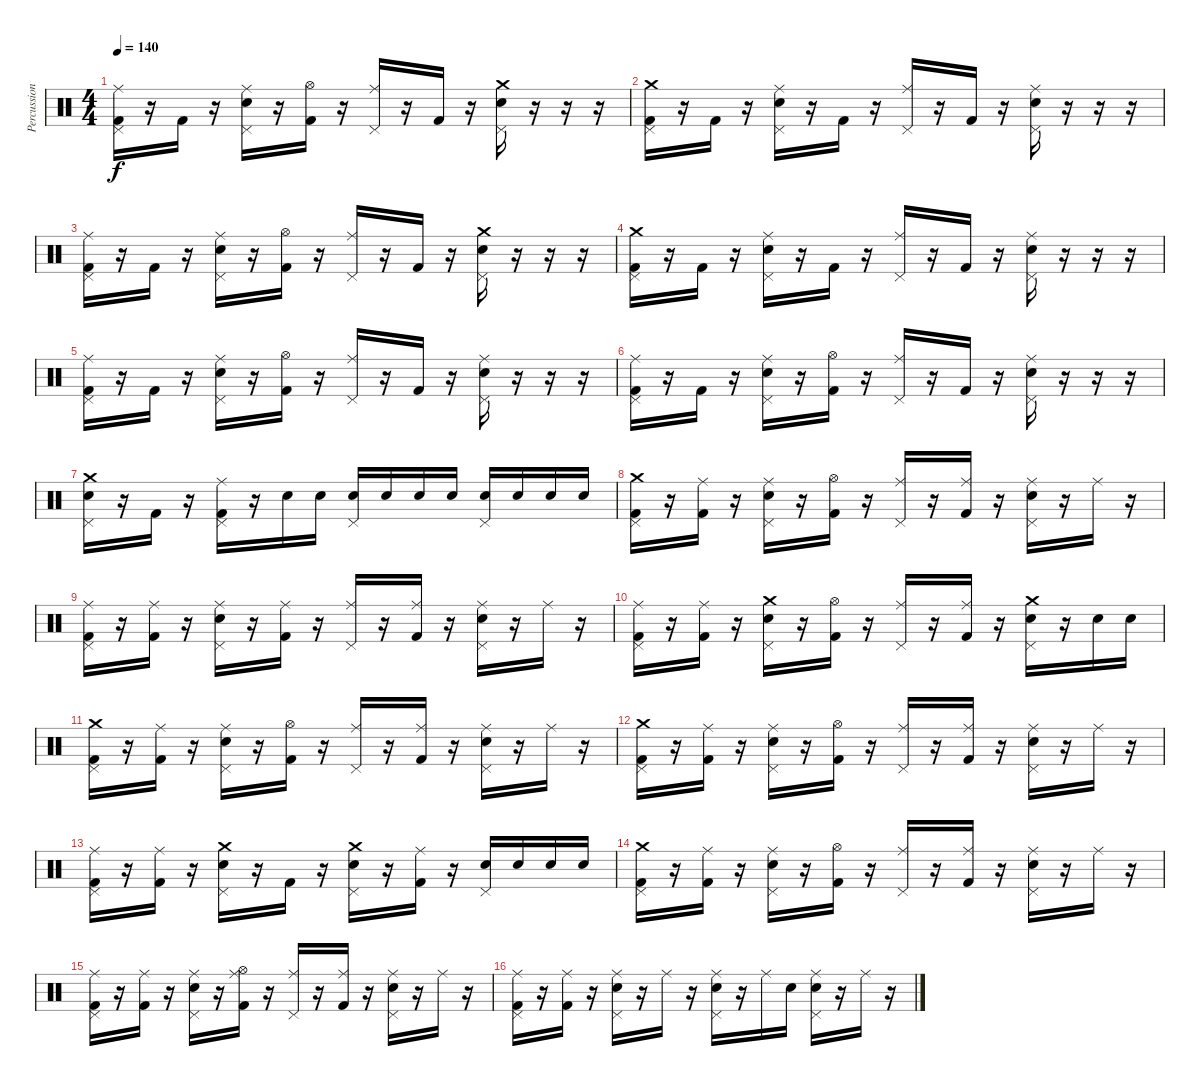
\track ("Percussion" "Percussion") {instrument percussion}
\staff {score}
\articulation defaults
\ts (4 4)
\tempo 140
\clef neutral
\ks c
("Ride (middle)" "Pedal Hi-Hat (hit)" "Kick (hit) 2").16{dy f} r.16 "Kick (hit) 2".16 r.16 ("Ride (middle)" "Pedal Hi-Hat (hit)" "Snare (hit) 2").16 r.16 ("Hi-Hat (open)" "Kick (hit) 2").16 r.16 ("Ride (middle)" "Pedal Hi-Hat (hit)").16 r.16 "Kick (hit) 2".16 r.16 ("Crash medium (hit)" "Pedal Hi-Hat (hit)" "Snare (hit) 2").16 r.16 r.16 r.16 |
("Crash medium (hit)" "Pedal Hi-Hat (hit)" "Kick (hit) 2").16 r.16 "Kick (hit) 2".16 r.16 ("Ride (middle)" "Pedal Hi-Hat (hit)" "Snare (hit) 2").16 r.16 "Kick (hit) 2".16 r.16 ("Ride (middle)" "Pedal Hi-Hat (hit)").16 r.16 "Kick (hit) 2".16 r.16 ("Ride (middle)" "Pedal Hi-Hat (hit)" "Snare (hit) 2").16 r.16 r.16 r.16 |
("Ride (middle)" "Pedal Hi-Hat (hit)" "Kick (hit) 2").16 r.16 "Kick (hit) 2".16 r.16 ("Ride (middle)" "Pedal Hi-Hat (hit)" "Snare (hit) 2").16 r.16 ("Hi-Hat (open)" "Kick (hit) 2").16 r.16 ("Ride (middle)" "Pedal Hi-Hat (hit)").16 r.16 "Kick (hit) 2".16 r.16 ("Crash medium (hit)" "Pedal Hi-Hat (hit)" "Snare (hit) 2").16 r.16 r.16 r.16 |
("Crash medium (hit)" "Pedal Hi-Hat (hit)" "Kick (hit) 2").16 r.16 "Kick (hit) 2".16 r.16 ("Ride (middle)" "Pedal Hi-Hat (hit)" "Snare (hit) 2").16 r.16 "Kick (hit) 2".16 r.16 ("Ride (middle)" "Pedal Hi-Hat (hit)").16 r.16 "Kick (hit) 2".16 r.16 ("Ride (middle)" "Pedal Hi-Hat (hit)" "Snare (hit) 2").16 r.16 r.16 r.16 |
("Ride (middle)" "Pedal Hi-Hat (hit)" "Kick (hit) 2").16 r.16 "Kick (hit) 2".16 r.16 ("Ride (middle)" "Pedal Hi-Hat (hit)" "Snare (hit) 2").16 r.16 ("Hi-Hat (open)" "Kick (hit) 2").16 r.16 ("Ride (middle)" "Pedal Hi-Hat (hit)").16 r.16 "Kick (hit) 2".16 r.16 ("Ride (middle)" "Pedal Hi-Hat (hit)" "Snare (hit) 2").16 r.16 r.16 r.16 |
("Ride (middle)" "Pedal Hi-Hat (hit)" "Kick (hit) 2").16 r.16 "Kick (hit) 2".16 r.16 ("Ride (middle)" "Pedal Hi-Hat (hit)" "Snare (hit) 2").16 r.16 ("Hi-Hat (open)" "Kick (hit) 2").16 r.16 ("Ride (middle)" "Pedal Hi-Hat (hit)").16 r.16 "Kick (hit) 2".16 r.16 ("Ride (middle)" "Pedal Hi-Hat (hit)" "Snare (hit) 2").16 r.16 r.16 r.16 |
("Crash medium (hit)" "Pedal Hi-Hat (hit)" "Snare (hit) 2").16 r.16 "Kick (hit) 2".16 r.16 ("Ride (middle)" "Pedal Hi-Hat (hit)" "Kick (hit) 2").16 r.16 "Snare (hit) 2".16 "Snare (hit) 2".16 ("Pedal Hi-Hat (hit)" "Snare (hit) 2").16 "Snare (hit) 2".16 "Snare (hit) 2".16 "Snare (hit) 2".16 ("Pedal Hi-Hat (hit)" "Snare (hit) 2").16 "Snare (hit) 2".16 "Snare (hit) 2".16 "Snare (hit) 2".16 |
("Crash medium (hit)" "Pedal Hi-Hat (hit)" "Kick (hit) 2").16 r.16 ("Ride (middle)" "Kick (hit) 2").16 r.16 ("Ride (middle)" "Pedal Hi-Hat (hit)" "Snare (hit) 2").16 r.16 ("Hi-Hat (open)" "Kick (hit) 2").16 r.16 ("Ride (middle)" "Pedal Hi-Hat (hit)").16 r.16 ("Ride (middle)" "Kick (hit) 2").16 r.16 ("Ride (middle)" "Pedal Hi-Hat (hit)" "Snare (hit) 2").16 r.16 "Ride (middle)".16 r.16 |
("Ride (middle)" "Pedal Hi-Hat (hit)" "Kick (hit) 2").16 r.16 ("Ride (middle)" "Kick (hit) 2").16 r.16 ("Ride (middle)" "Pedal Hi-Hat (hit)" "Snare (hit) 2").16 r.16 ("Ride (middle)" "Kick (hit) 2").16 r.16 ("Ride (middle)" "Pedal Hi-Hat (hit)").16 r.16 ("Ride (middle)" "Kick (hit) 2").16 r.16 ("Ride (middle)" "Pedal Hi-Hat (hit)" "Snare (hit) 2").16 r.16 "Ride (middle)".16 r.16 |
("Ride (middle)" "Pedal Hi-Hat (hit)" "Kick (hit) 2").16 r.16 ("Ride (middle)" "Kick (hit) 2").16 r.16 ("Crash medium (hit)" "Pedal Hi-Hat (hit)" "Snare (hit) 2").16 r.16 ("Hi-Hat (open)" "Kick (hit) 2").16 r.16 ("Ride (middle)" "Pedal Hi-Hat (hit)").16 r.16 ("Ride (middle)" "Kick (hit) 2").16 r.16 ("Crash medium (hit)" "Pedal Hi-Hat (hit)" "Snare (hit) 2").16 r.16 "Snare (hit) 2".16 "Snare (hit) 2".16 |
("Crash medium (hit)" "Pedal Hi-Hat (hit)" "Kick (hit) 2").16 r.16 ("Ride (middle)" "Kick (hit) 2").16 r.16 ("Ride (middle)" "Pedal Hi-Hat (hit)" "Snare (hit) 2").16 r.16 ("Hi-Hat (open)" "Kick (hit) 2").16 r.16 ("Ride (middle)" "Pedal Hi-Hat (hit)").16 r.16 ("Ride (middle)" "Kick (hit) 2").16 r.16 ("Ride (middle)" "Pedal Hi-Hat (hit)" "Snare (hit) 2").16 r.16 "Ride (middle)".16 r.16 |
("Crash medium (hit)" "Pedal Hi-Hat (hit)" "Kick (hit) 2").16 r.16 ("Ride (middle)" "Kick (hit) 2").16 r.16 ("Ride (middle)" "Pedal Hi-Hat (hit)" "Snare (hit) 2").16 r.16 ("Hi-Hat (open)" "Kick (hit) 2").16 r.16 ("Ride (middle)" "Pedal Hi-Hat (hit)").16 r.16 ("Ride (middle)" "Kick (hit) 2").16 r.16 ("Ride (middle)" "Pedal Hi-Hat (hit)" "Snare (hit) 2").16 r.16 "Ride (middle)".16 r.16 |
("Ride (middle)" "Pedal Hi-Hat (hit)" "Kick (hit) 2").16 r.16 ("Ride (middle)" "Kick (hit) 2").16 r.16 ("Crash medium (hit)" "Pedal Hi-Hat (hit)" "Snare (hit) 2").16 r.16 "Kick (hit) 2".16 r.16 ("Crash medium (hit)" "Pedal Hi-Hat (hit)" "Snare (hit) 2").16 r.16 ("Ride (middle)" "Kick (hit) 2").16 r.16 ("Pedal Hi-Hat (hit)" "Snare (hit) 2").16 "Snare (hit) 2".16 "Snare (hit) 2".16 "Snare (hit) 2".16 |
("Crash medium (hit)" "Pedal Hi-Hat (hit)" "Kick (hit) 2").16 r.16 ("Ride (middle)" "Kick (hit) 2").16 r.16 ("Ride (middle)" "Pedal Hi-Hat (hit)" "Snare (hit) 2").16 r.16 ("Hi-Hat (open)" "Kick (hit) 2").16 r.16 ("Ride (middle)" "Pedal Hi-Hat (hit)").16 r.16 ("Ride (middle)" "Kick (hit) 2").16 r.16 ("Ride (middle)" "Pedal Hi-Hat (hit)" "Snare (hit) 2").16 r.16 "Ride (middle)".16 r.16 |
("Ride (middle)" "Pedal Hi-Hat (hit)" "Kick (hit) 2").16 r.16 ("Ride (middle)" "Kick (hit) 2").16 r.16 ("Ride (middle)" "Pedal Hi-Hat (hit)" "Snare (hit) 2").16 r.16 ("Ride (middle)" "Hi-Hat (open)" "Kick (hit) 2").16 r.16 ("Ride (middle)" "Pedal Hi-Hat (hit)").16 r.16 ("Ride (middle)" "Kick (hit) 2").16 r.16 ("Ride (middle)" "Pedal Hi-Hat (hit)" "Snare (hit) 2").16 r.16 "Ride (middle)".16 r.16 |
("Ride (middle)" "Pedal Hi-Hat (hit)" "Kick (hit) 2").16 r.16 ("Ride (middle)" "Kick (hit) 2").16 r.16 ("Ride (middle)" "Pedal Hi-Hat (hit)" "Snare (hit) 2").16 r.16 "Ride (middle)".16 r.16 ("Ride (middle)" "Pedal Hi-Hat (hit)" "Snare (hit) 2").16 r.16 "Ride (middle)".16 "Snare (hit) 2".16 ("Ride (middle)" "Pedal Hi-Hat (hit)" "Snare (hit) 2").16 r.16 "Ride (middle)".16 r.16
